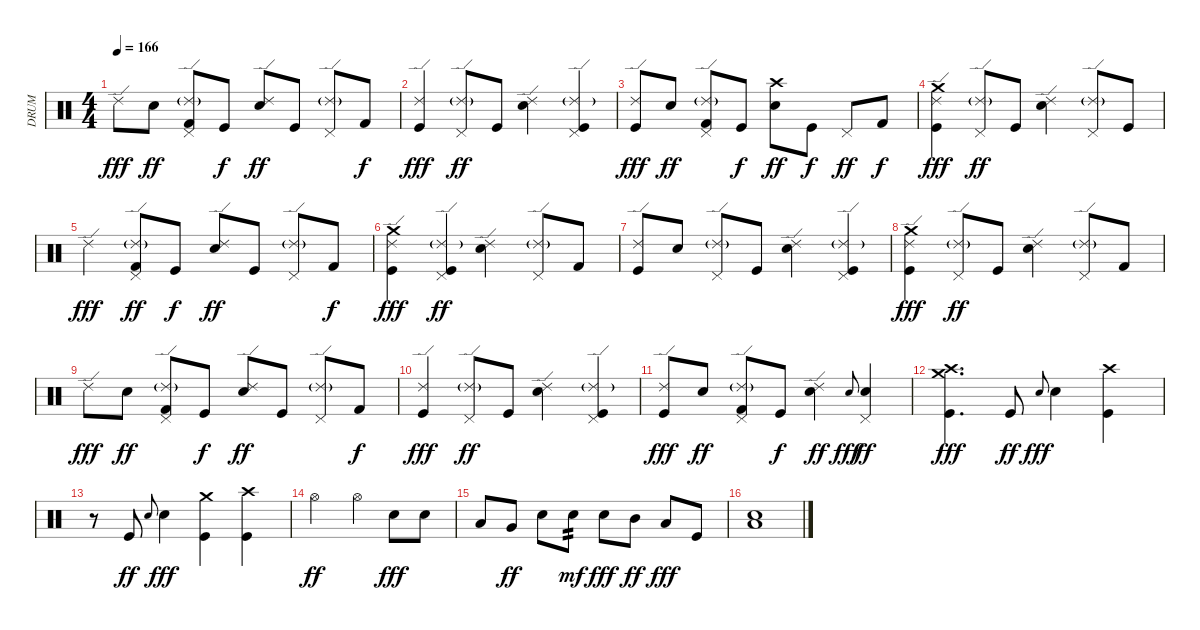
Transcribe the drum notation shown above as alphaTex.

\track ("DRUM" "DRUM") {instrument percussion}
\staff {score}
\articulation defaults
\ts (4 4)
\tempo 166
\clef neutral
\ks c "Ride (edge) 2".8{dy fff} "Electric Snare (hit)".8{dy ff}
("Ride (edge) 2"{g} "Pedal Hi-Hat (hit)" "Kick (hit) 2").8 "Kick (hit)".8{dy f} ("Ride (edge) 2" "Electric Snare (hit)").8{dy ff} "Kick (hit)".8 ("Ride (edge) 2"{g} "Pedal Hi-Hat (hit)").8 "Kick (hit) 2".8{dy f} |
("Ride (edge) 2" "Kick (hit)").4{dy fff} ("Ride (edge) 2"{g} "Pedal Hi-Hat (hit)").8{dy ff} "Kick (hit)".8 ("Ride (edge) 2" "Electric Snare (hit)").4 ("Ride (edge) 2"{g} "Pedal Hi-Hat (hit)" "Kick (hit)").4 |
("Ride (edge) 2" "Kick (hit)").8{dy fff} "Electric Snare (hit)".8{dy ff} ("Ride (edge) 2"{g} "Pedal Hi-Hat (hit)" "Kick (hit) 2").8 "Kick (hit)".8{dy f} ("Crash high (hit)" "Electric Snare (hit)").8{dy ff} "Kick (hit)".8{dy f} "Pedal Hi-Hat (hit)".8{dy ff} "Kick (hit) 2".8{dy f} |
("Ride (edge) 2" "Crash medium (hit)" "Kick (hit)").4{dy fff} ("Ride (edge) 2"{g} "Pedal Hi-Hat (hit)").8{dy ff} "Kick (hit)".8 ("Ride (edge) 2" "Electric Snare (hit)").4 ("Ride (edge) 2"{g} "Pedal Hi-Hat (hit)").8 "Kick (hit)".8 |
"Ride (edge) 2".4{dy fff} ("Ride (edge) 2"{g} "Pedal Hi-Hat (hit)" "Kick (hit) 2").8{dy ff} "Kick (hit)".8{dy f} ("Ride (edge) 2" "Electric Snare (hit)").8{dy ff} "Kick (hit)".8 ("Ride (edge) 2"{g} "Pedal Hi-Hat (hit)").8 "Kick (hit) 2".8{dy f} |
("Ride (edge) 2" "Crash medium (hit)" "Kick (hit)").4{dy fff} ("Ride (edge) 2"{g} "Pedal Hi-Hat (hit)" "Kick (hit)").4{dy ff} ("Ride (edge) 2" "Electric Snare (hit)").4 ("Ride (edge) 2"{g} "Pedal Hi-Hat (hit)").8 "Kick (hit) 2".8 |
("Ride (edge) 2" "Kick (hit)").8 "Electric Snare (hit)".8 ("Ride (edge) 2"{g} "Pedal Hi-Hat (hit)").8 "Kick (hit)".8 ("Ride (edge) 2" "Electric Snare (hit)").4 ("Ride (edge) 2"{g} "Pedal Hi-Hat (hit)" "Kick (hit)").4 |
("Ride (edge) 2" "Crash medium (hit)" "Kick (hit)").4{dy fff} ("Ride (edge) 2"{g} "Pedal Hi-Hat (hit)").8{dy ff} "Kick (hit)".8 ("Ride (edge) 2" "Electric Snare (hit)").4 ("Ride (edge) 2"{g} "Pedal Hi-Hat (hit)").8 "Kick (hit) 2".8 |
"Ride (edge) 2".8{dy fff} "Electric Snare (hit)".8{dy ff} ("Ride (edge) 2"{g} "Pedal Hi-Hat (hit)" "Kick (hit) 2").8 "Kick (hit)".8{dy f} ("Ride (edge) 2" "Electric Snare (hit)").8{dy ff} "Kick (hit)".8 ("Ride (edge) 2"{g} "Pedal Hi-Hat (hit)").8 "Kick (hit) 2".8{dy f} |
("Ride (edge) 2" "Kick (hit)").4{dy fff} ("Ride (edge) 2"{g} "Pedal Hi-Hat (hit)").8{dy ff} "Kick (hit)".8 ("Ride (edge) 2" "Electric Snare (hit)").4 ("Ride (edge) 2"{g} "Pedal Hi-Hat (hit)" "Kick (hit)").4 |
("Ride (edge) 2" "Kick (hit)").8{dy fff} "Electric Snare (hit)".8{dy ff} ("Ride (edge) 2"{g} "Pedal Hi-Hat (hit)" "Kick (hit) 2").8 "Kick (hit)".8{dy f} ("Ride (edge) 2" "Electric Snare (hit)").4{dy ff} "Snare (hit) 2".8{gr onbeat dy fff} ("Pedal Hi-Hat (hit)" "Electric Snare (hit)").4{dy ff} |
("Crash medium (hit)" "Crash high (hit)" "Kick (hit)").4{d dy fff} "Kick (hit)".8{dy ff} "Snare (hit) 2".8{gr onbeat dy fff} "Electric Snare (hit)".4 ("Crash high (hit)" "Kick (hit)").4 |
r.8 "Kick (hit)".8{dy ff} "Snare (hit) 2".8{gr onbeat} "Electric Snare (hit)".4{dy fff} ("Crash medium (hit)" "Kick (hit)").4 ("Crash high (hit)" "Kick (hit)").4 |
"Hi-Hat (open)".2{dy ff} "Hi-Hat (open)".4 "Snare (hit) 2".8{dy fff} "Electric Snare (hit)".8 |
"Low Tom (hit)".8 "Very Low Tom (hit)".8{dy ff} "Snare (hit) 2".8 "Electric Snare (hit)".8{tp 2 dy mf} "Snare (hit) 2".8{dy fff} "Mid Tom (hit)".8{dy ff} "Low Tom (hit)".8{dy fff} "Kick (hit)".8 |
("Electric Snare (hit)" "Low Floor Tom (hit)").1
